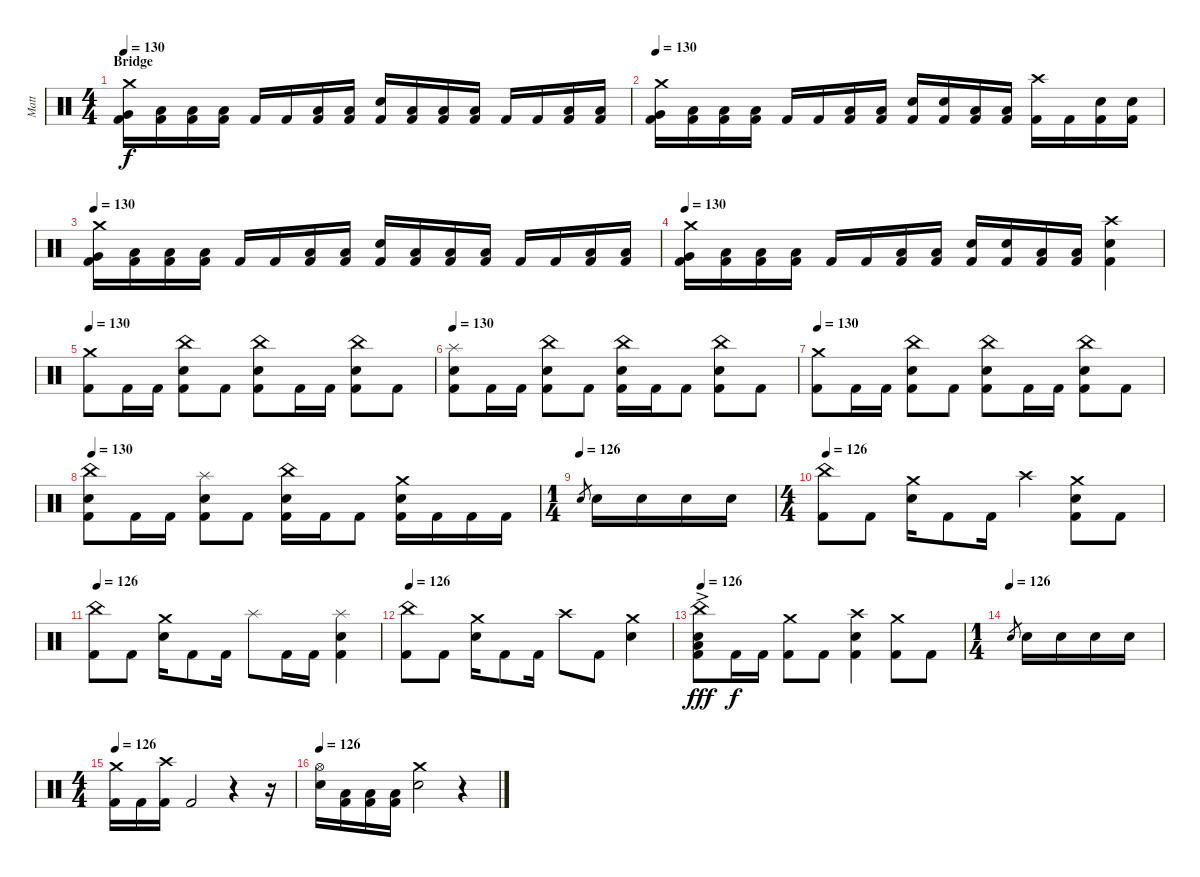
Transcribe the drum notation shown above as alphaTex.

\track ("Matt" "Matt") {instrument percussion}
\staff {score}
\articulation defaults
\ts (4 4)
\section ("" "Bridge")
\tempo 130
\clef neutral
\ks c
("Crash medium (hit)" "Very Low Tom (hit)" "Kick (hit) 2").16{dy f} ("Low Floor Tom (hit)" "Kick (hit) 2").16 ("Low Floor Tom (hit)" "Kick (hit) 2").16 ("Low Floor Tom (hit)" "Kick (hit) 2").16 "Kick (hit) 2".16 "Kick (hit) 2".16 ("Low Floor Tom (hit)" "Kick (hit) 2").16 ("Low Floor Tom (hit)" "Kick (hit) 2").16 ("Electric Snare (hit)" "Kick (hit) 2").16 ("Low Floor Tom (hit)" "Kick (hit) 2").16 ("Low Floor Tom (hit)" "Kick (hit) 2").16 ("Low Floor Tom (hit)" "Kick (hit) 2").16 "Kick (hit) 2".16 "Kick (hit) 2".16 ("Low Floor Tom (hit)" "Kick (hit) 2").16 ("Low Floor Tom (hit)" "Kick (hit) 2").16 |
\tempo 130
("Crash medium (hit)" "Very Low Tom (hit)" "Kick (hit) 2").16 ("Low Floor Tom (hit)" "Kick (hit) 2").16 ("Low Floor Tom (hit)" "Kick (hit) 2").16 ("Low Floor Tom (hit)" "Kick (hit) 2").16 "Kick (hit) 2".16 "Kick (hit) 2".16 ("Low Floor Tom (hit)" "Kick (hit) 2").16 ("Low Floor Tom (hit)" "Kick (hit) 2").16 ("Electric Snare (hit)" "Kick (hit) 2").16 ("Electric Snare (hit)" "Kick (hit) 2").16 ("Low Floor Tom (hit)" "Kick (hit) 2").16 ("Low Floor Tom (hit)" "Kick (hit) 2").16 ("Crash high (hit)" "Kick (hit) 2").16 "Kick (hit) 2".16 ("Electric Snare (hit)" "Kick (hit) 2").16 ("Electric Snare (hit)" "Kick (hit) 2").16 |
\tempo 130
("Crash medium (hit)" "Very Low Tom (hit)" "Kick (hit) 2").16 ("Low Floor Tom (hit)" "Kick (hit) 2").16 ("Low Floor Tom (hit)" "Kick (hit) 2").16 ("Low Floor Tom (hit)" "Kick (hit) 2").16 "Kick (hit) 2".16 "Kick (hit) 2".16 ("Low Floor Tom (hit)" "Kick (hit) 2").16 ("Low Floor Tom (hit)" "Kick (hit) 2").16 ("Electric Snare (hit)" "Kick (hit) 2").16 ("Low Floor Tom (hit)" "Kick (hit) 2").16 ("Low Floor Tom (hit)" "Kick (hit) 2").16 ("Low Floor Tom (hit)" "Kick (hit) 2").16 "Kick (hit) 2".16 "Kick (hit) 2".16 ("Low Floor Tom (hit)" "Kick (hit) 2").16 ("Low Floor Tom (hit)" "Kick (hit) 2").16 |
\tempo 130
("Crash medium (hit)" "Very Low Tom (hit)" "Kick (hit) 2").16 ("Low Floor Tom (hit)" "Kick (hit) 2").16 ("Low Floor Tom (hit)" "Kick (hit) 2").16 ("Low Floor Tom (hit)" "Kick (hit) 2").16 "Kick (hit) 2".16 "Kick (hit) 2".16 ("Low Floor Tom (hit)" "Kick (hit) 2").16 ("Low Floor Tom (hit)" "Kick (hit) 2").16 ("Electric Snare (hit)" "Kick (hit) 2").16 ("Electric Snare (hit)" "Kick (hit) 2").16 ("Low Floor Tom (hit)" "Kick (hit) 2").16 ("Low Floor Tom (hit)" "Kick (hit) 2").16 ("Crash high (hit)" "Electric Snare (hit)" "Kick (hit) 2").4 |
\tempo 130
("Crash medium (hit)" "Kick (hit) 2").8 "Kick (hit) 2".16 "Kick (hit) 2".16 ("China (hit)" "Electric Snare (hit)" "Kick (hit) 2").8 "Kick (hit) 2".8 ("China (hit)" "Electric Snare (hit)" "Kick (hit) 2").8 "Kick (hit) 2".16 "Kick (hit) 2".16 ("China (hit)" "Electric Snare (hit)" "Kick (hit) 2").8 "Kick (hit) 2".8 |
\tempo 130
("Splash (hit)" "Electric Snare (hit)" "Kick (hit) 2").8 "Kick (hit) 2".16 "Kick (hit) 2".16 ("China (hit)" "Electric Snare (hit)" "Kick (hit) 2").8 "Kick (hit) 2".8 ("China (hit)" "Electric Snare (hit)" "Kick (hit) 2").16 "Kick (hit) 2".16 "Kick (hit) 2".8 ("China (hit)" "Electric Snare (hit)" "Kick (hit) 2").8 "Kick (hit) 2".8 |
\tempo 130
("Crash medium (hit)" "Kick (hit) 2").8 "Kick (hit) 2".16 "Kick (hit) 2".16 ("China (hit)" "Electric Snare (hit)" "Kick (hit) 2").8 "Kick (hit) 2".8 ("China (hit)" "Electric Snare (hit)" "Kick (hit) 2").8 "Kick (hit) 2".16 "Kick (hit) 2".16 ("China (hit)" "Electric Snare (hit)" "Kick (hit) 2").8 "Kick (hit) 2".8 |
\tempo 130
("China (hit)" "Electric Snare (hit)" "Kick (hit) 2").8 "Kick (hit) 2".16 "Kick (hit) 2".16 ("Splash (hit)" "Electric Snare (hit)" "Kick (hit) 2").8 "Kick (hit) 2".8 ("China (hit)" "Electric Snare (hit)" "Kick (hit) 2").16 "Kick (hit) 2".16 "Kick (hit) 2".8 ("Crash medium (hit)" "Electric Snare (hit)" "Kick (hit) 2").16 "Kick (hit) 2".16 "Kick (hit) 2".16 "Kick (hit) 2".16 |
\ts (1 4)
\section ("" "")
\tempo (126)
"Electric Snare (hit)".8{gr} "Electric Snare (hit)".16 "Electric Snare (hit)".16 "Electric Snare (hit)".16 "Electric Snare (hit)".16 |
\ts (4 4)
\tempo 126
("China (hit)" "Kick (hit) 2").8 "Kick (hit) 2".8 ("Crash medium (hit)" "Electric Snare (hit)").16 "Kick (hit) 2".8 "Kick (hit) 2".16 "Crash high (hit)".4 ("Crash medium (hit)" "Electric Snare (hit)" "Kick (hit) 2").8 "Kick (hit) 2".8 |
\tempo 126
("China (hit)" "Kick (hit) 2").8 "Kick (hit) 2".8 ("Crash medium (hit)" "Electric Snare (hit)").16 "Kick (hit) 2".8 "Kick (hit) 2".16 "Splash (hit)".8 "Kick (hit) 2".16 "Kick (hit) 2".16 ("Splash (hit)" "Electric Snare (hit)" "Kick (hit) 2").4 |
\tempo 126
("China (hit)" "Kick (hit) 2").8 "Kick (hit) 2".8 ("Crash medium (hit)" "Electric Snare (hit)").16 "Kick (hit) 2".8 "Kick (hit) 2".16 "Crash high (hit)".8 "Kick (hit) 2".8 ("Crash medium (hit)" "Electric Snare (hit)").4 |
\tempo 126
("China (hit)" "Electric Snare (hit)" "Low Floor Tom (hit)"{ac} "Kick (hit) 2").8{dy fff} "Kick (hit) 2".16{dy f} "Kick (hit) 2".16 ("Crash medium (hit)" "Kick (hit) 2").8 "Kick (hit) 2".8 ("Crash high (hit)" "Electric Snare (hit)" "Kick (hit) 2").4 ("Crash medium (hit)" "Kick (hit) 2").8 "Kick (hit) 2".8 |
\ts (1 4)
\tempo (126)
"Electric Snare (hit)".8{gr} "Electric Snare (hit)".16 "Electric Snare (hit)".16 "Electric Snare (hit)".16 "Electric Snare (hit)".16 |
\ts (4 4)
\section ("" "")
\tempo 126
("Crash medium (hit)" "Kick (hit) 2").16 "Kick (hit) 2".16 ("Crash high (hit)" "Kick (hit) 2").16 "Kick (hit) 2".2 r.4 r.16 |
\tempo 126
("Hi-Hat (open)" "Electric Snare (hit)").16 ("Low Floor Tom (hit)" "Kick (hit) 2").16 ("Low Floor Tom (hit)" "Kick (hit) 2").16 ("Low Floor Tom (hit)" "Kick (hit) 2").16 ("Crash medium (hit)" "Electric Snare (hit)").2 r.4
